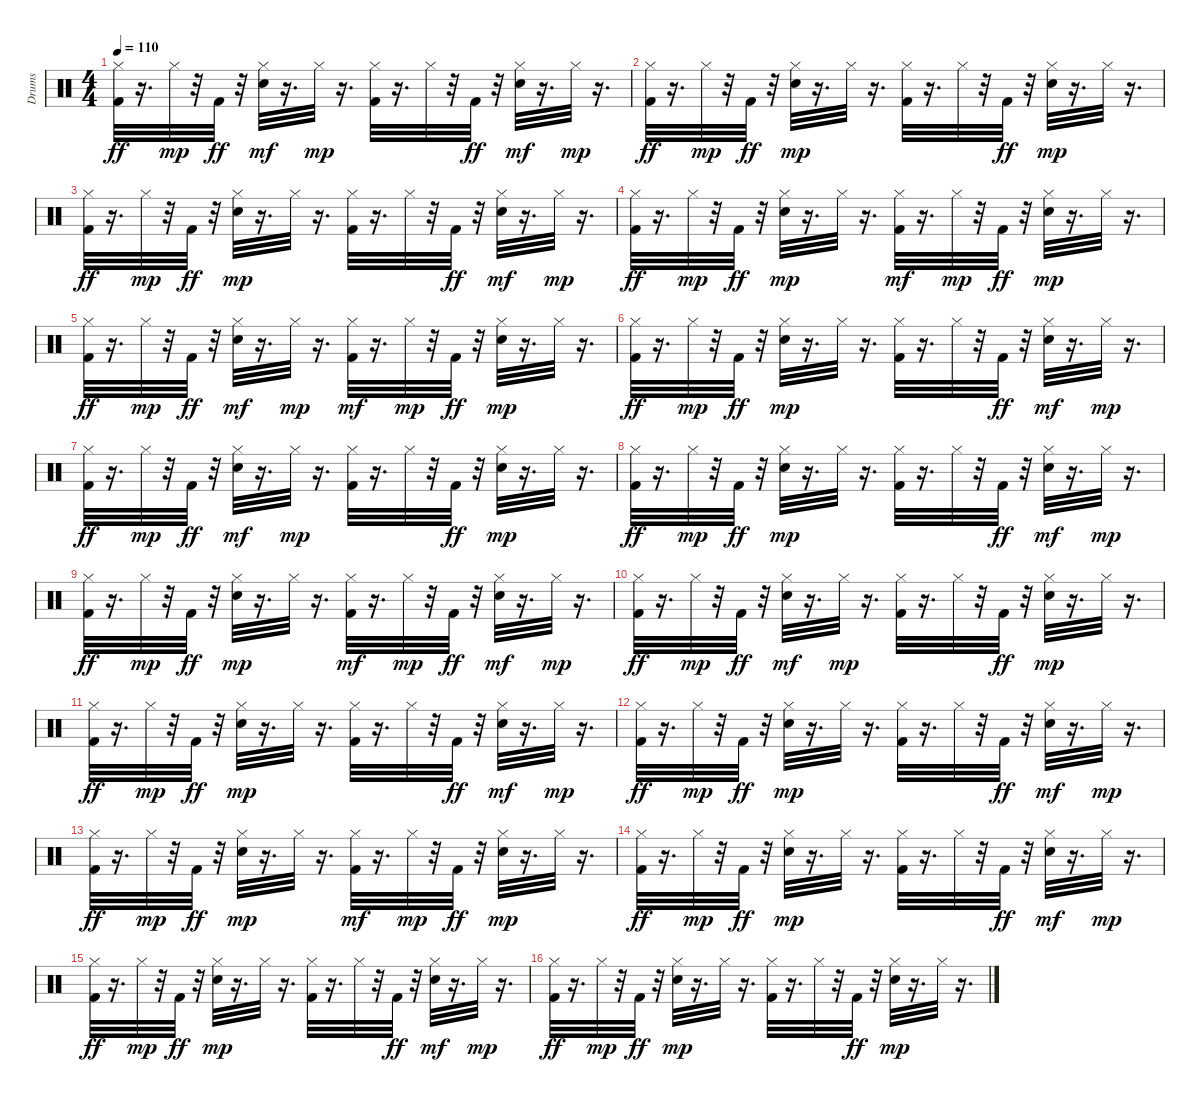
\track ("Drums   " "Drums   ") {instrument percussion}
\staff {score}
\articulation defaults
\ts (4 4)
\tempo 110
\clef neutral
\ks c
("Hi-Hat (closed)" "Kick (hit) 2").32{dy ff} r.16{d} "Hi-Hat (closed)".32{dy mp} r.32 "Kick (hit) 2".32{dy ff} r.32 ("Snare (hit) 2" "Hi-Hat (closed)").32{dy mf} r.16{d} "Hi-Hat (closed)".32{dy mp} r.16{d} ("Kick (hit) 2" "Hi-Hat (closed)").32 r.16{d} "Hi-Hat (closed)".32 r.32 "Kick (hit) 2".32{dy ff} r.32 ("Snare (hit) 2" "Hi-Hat (closed)").32{dy mf} r.16{d} "Hi-Hat (closed)".32{dy mp} r.16{d} |
("Hi-Hat (closed)" "Kick (hit) 2").32{dy ff} r.16{d} "Hi-Hat (closed)".32{dy mp} r.32 "Kick (hit) 2".32{dy ff} r.32 ("Snare (hit) 2" "Hi-Hat (closed)").32{dy mp} r.16{d} "Hi-Hat (closed)".32 r.16{d} ("Kick (hit) 2" "Hi-Hat (closed)").32 r.16{d} "Hi-Hat (closed)".32 r.32 "Kick (hit) 2".32{dy ff} r.32 ("Snare (hit) 2" "Hi-Hat (closed)").32{dy mp} r.16{d} "Hi-Hat (closed)".32 r.16{d} |
("Hi-Hat (closed)" "Kick (hit) 2").32{dy ff} r.16{d} "Hi-Hat (closed)".32{dy mp} r.32 "Kick (hit) 2".32{dy ff} r.32 ("Snare (hit) 2" "Hi-Hat (closed)").32{dy mp} r.16{d} "Hi-Hat (closed)".32 r.16{d} ("Kick (hit) 2" "Hi-Hat (closed)").32 r.16{d} "Hi-Hat (closed)".32 r.32 "Kick (hit) 2".32{dy ff} r.32 ("Snare (hit) 2" "Hi-Hat (closed)").32{dy mf} r.16{d} "Hi-Hat (closed)".32{dy mp} r.16{d} |
("Hi-Hat (closed)" "Kick (hit) 2").32{dy ff} r.16{d} "Hi-Hat (closed)".32{dy mp} r.32 "Kick (hit) 2".32{dy ff} r.32 ("Snare (hit) 2" "Hi-Hat (closed)").32{dy mp} r.16{d} "Hi-Hat (closed)".32 r.16{d} ("Kick (hit) 2" "Hi-Hat (closed)").32{dy mf} r.16{d} "Hi-Hat (closed)".32{dy mp} r.32 "Kick (hit) 2".32{dy ff} r.32 ("Snare (hit) 2" "Hi-Hat (closed)").32{dy mp} r.16{d} "Hi-Hat (closed)".32 r.16{d} |
("Hi-Hat (closed)" "Kick (hit) 2").32{dy ff} r.16{d} "Hi-Hat (closed)".32{dy mp} r.32 "Kick (hit) 2".32{dy ff} r.32 ("Snare (hit) 2" "Hi-Hat (closed)").32{dy mf} r.16{d} "Hi-Hat (closed)".32{dy mp} r.16{d} ("Kick (hit) 2" "Hi-Hat (closed)").32{dy mf} r.16{d} "Hi-Hat (closed)".32{dy mp} r.32 "Kick (hit) 2".32{dy ff} r.32 ("Snare (hit) 2" "Hi-Hat (closed)").32{dy mp} r.16{d} "Hi-Hat (closed)".32 r.16{d} |
("Hi-Hat (closed)" "Kick (hit) 2").32{dy ff} r.16{d} "Hi-Hat (closed)".32{dy mp} r.32 "Kick (hit) 2".32{dy ff} r.32 ("Snare (hit) 2" "Hi-Hat (closed)").32{dy mp} r.16{d} "Hi-Hat (closed)".32 r.16{d} ("Kick (hit) 2" "Hi-Hat (closed)").32 r.16{d} "Hi-Hat (closed)".32 r.32 "Kick (hit) 2".32{dy ff} r.32 ("Snare (hit) 2" "Hi-Hat (closed)").32{dy mf} r.16{d} "Hi-Hat (closed)".32{dy mp} r.16{d} |
("Hi-Hat (closed)" "Kick (hit) 2").32{dy ff} r.16{d} "Hi-Hat (closed)".32{dy mp} r.32 "Kick (hit) 2".32{dy ff} r.32 ("Snare (hit) 2" "Hi-Hat (closed)").32{dy mf} r.16{d} "Hi-Hat (closed)".32{dy mp} r.16{d} ("Kick (hit) 2" "Hi-Hat (closed)").32 r.16{d} "Hi-Hat (closed)".32 r.32 "Kick (hit) 2".32{dy ff} r.32 ("Snare (hit) 2" "Hi-Hat (closed)").32{dy mp} r.16{d} "Hi-Hat (closed)".32 r.16{d} |
("Hi-Hat (closed)" "Kick (hit) 2").32{dy ff} r.16{d} "Hi-Hat (closed)".32{dy mp} r.32 "Kick (hit) 2".32{dy ff} r.32 ("Snare (hit) 2" "Hi-Hat (closed)").32{dy mp} r.16{d} "Hi-Hat (closed)".32 r.16{d} ("Kick (hit) 2" "Hi-Hat (closed)").32 r.16{d} "Hi-Hat (closed)".32 r.32 "Kick (hit) 2".32{dy ff} r.32 ("Snare (hit) 2" "Hi-Hat (closed)").32{dy mf} r.16{d} "Hi-Hat (closed)".32{dy mp} r.16{d} |
("Hi-Hat (closed)" "Kick (hit) 2").32{dy ff} r.16{d} "Hi-Hat (closed)".32{dy mp} r.32 "Kick (hit) 2".32{dy ff} r.32 ("Snare (hit) 2" "Hi-Hat (closed)").32{dy mp} r.16{d} "Hi-Hat (closed)".32 r.16{d} ("Kick (hit) 2" "Hi-Hat (closed)").32{dy mf} r.16{d} "Hi-Hat (closed)".32{dy mp} r.32 "Kick (hit) 2".32{dy ff} r.32 ("Snare (hit) 2" "Hi-Hat (closed)").32{dy mf} r.16{d} "Hi-Hat (closed)".32{dy mp} r.16{d} |
("Hi-Hat (closed)" "Kick (hit) 2").32{dy ff} r.16{d} "Hi-Hat (closed)".32{dy mp} r.32 "Kick (hit) 2".32{dy ff} r.32 ("Snare (hit) 2" "Hi-Hat (closed)").32{dy mf} r.16{d} "Hi-Hat (closed)".32{dy mp} r.16{d} ("Kick (hit) 2" "Hi-Hat (closed)").32 r.16{d} "Hi-Hat (closed)".32 r.32 "Kick (hit) 2".32{dy ff} r.32 ("Snare (hit) 2" "Hi-Hat (closed)").32{dy mp} r.16{d} "Hi-Hat (closed)".32 r.16{d} |
("Hi-Hat (closed)" "Kick (hit) 2").32{dy ff} r.16{d} "Hi-Hat (closed)".32{dy mp} r.32 "Kick (hit) 2".32{dy ff} r.32 ("Snare (hit) 2" "Hi-Hat (closed)").32{dy mp} r.16{d} "Hi-Hat (closed)".32 r.16{d} ("Kick (hit) 2" "Hi-Hat (closed)").32 r.16{d} "Hi-Hat (closed)".32 r.32 "Kick (hit) 2".32{dy ff} r.32 ("Snare (hit) 2" "Hi-Hat (closed)").32{dy mf} r.16{d} "Hi-Hat (closed)".32{dy mp} r.16{d} |
("Hi-Hat (closed)" "Kick (hit) 2").32{dy ff} r.16{d} "Hi-Hat (closed)".32{dy mp} r.32 "Kick (hit) 2".32{dy ff} r.32 ("Snare (hit) 2" "Hi-Hat (closed)").32{dy mp} r.16{d} "Hi-Hat (closed)".32 r.16{d} ("Kick (hit) 2" "Hi-Hat (closed)").32 r.16{d} "Hi-Hat (closed)".32 r.32 "Kick (hit) 2".32{dy ff} r.32 ("Snare (hit) 2" "Hi-Hat (closed)").32{dy mf} r.16{d} "Hi-Hat (closed)".32{dy mp} r.16{d} |
("Hi-Hat (closed)" "Kick (hit) 2").32{dy ff} r.16{d} "Hi-Hat (closed)".32{dy mp} r.32 "Kick (hit) 2".32{dy ff} r.32 ("Snare (hit) 2" "Hi-Hat (closed)").32{dy mp} r.16{d} "Hi-Hat (closed)".32 r.16{d} ("Kick (hit) 2" "Hi-Hat (closed)").32{dy mf} r.16{d} "Hi-Hat (closed)".32{dy mp} r.32 "Kick (hit) 2".32{dy ff} r.32 ("Snare (hit) 2" "Hi-Hat (closed)").32{dy mp} r.16{d} "Hi-Hat (closed)".32 r.16{d} |
("Hi-Hat (closed)" "Kick (hit) 2").32{dy ff} r.16{d} "Hi-Hat (closed)".32{dy mp} r.32 "Kick (hit) 2".32{dy ff} r.32 ("Snare (hit) 2" "Hi-Hat (closed)").32{dy mp} r.16{d} "Hi-Hat (closed)".32 r.16{d} ("Kick (hit) 2" "Hi-Hat (closed)").32 r.16{d} "Hi-Hat (closed)".32 r.32 "Kick (hit) 2".32{dy ff} r.32 ("Snare (hit) 2" "Hi-Hat (closed)").32{dy mf} r.16{d} "Hi-Hat (closed)".32{dy mp} r.16{d} |
("Hi-Hat (closed)" "Kick (hit) 2").32{dy ff} r.16{d} "Hi-Hat (closed)".32{dy mp} r.32 "Kick (hit) 2".32{dy ff} r.32 ("Snare (hit) 2" "Hi-Hat (closed)").32{dy mp} r.16{d} "Hi-Hat (closed)".32 r.16{d} ("Kick (hit) 2" "Hi-Hat (closed)").32 r.16{d} "Hi-Hat (closed)".32 r.32 "Kick (hit) 2".32{dy ff} r.32 ("Snare (hit) 2" "Hi-Hat (closed)").32{dy mf} r.16{d} "Hi-Hat (closed)".32{dy mp} r.16{d} |
("Hi-Hat (closed)" "Kick (hit) 2").32{dy ff} r.16{d} "Hi-Hat (closed)".32{dy mp} r.32 "Kick (hit) 2".32{dy ff} r.32 ("Snare (hit) 2" "Hi-Hat (closed)").32{dy mp} r.16{d} "Hi-Hat (closed)".32 r.16{d} ("Kick (hit) 2" "Hi-Hat (closed)").32 r.16{d} "Hi-Hat (closed)".32 r.32 "Kick (hit) 2".32{dy ff} r.32 ("Snare (hit) 2" "Hi-Hat (closed)").32{dy mp} r.16{d} "Hi-Hat (closed)".32 r.16{d}
